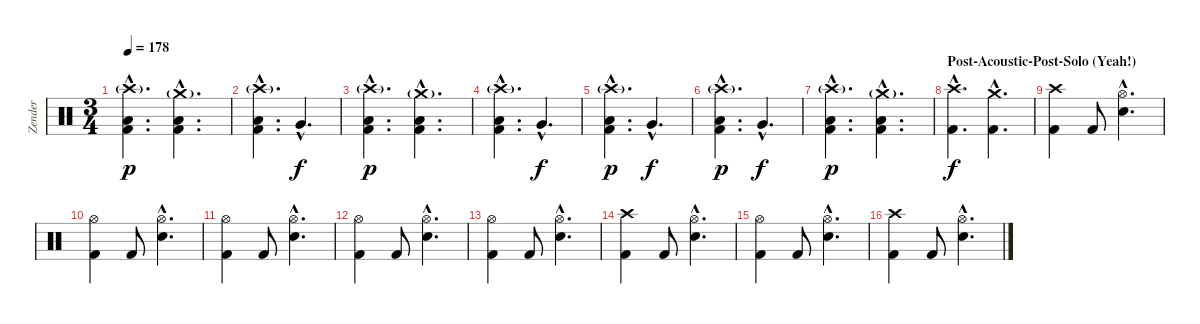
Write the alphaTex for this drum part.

\track ("Zender" "Zender") {instrument percussion}
\staff {score}
\articulation defaults
\ts (3 4)
\tempo 178
\clef neutral
\ks c
("Crash high (hit)"{g hac} "Low Floor Tom (hit)"{hac} "Kick (hit) 2"{hac}).4{d dy p} ("Crash medium (hit)"{g hac} "Low Floor Tom (hit)"{hac} "Kick (hit) 2"{hac}).4{d} |
("Crash high (hit)"{g hac} "Low Floor Tom (hit)"{hac} "Kick (hit) 2"{hac}).4{d} "Very Low Tom (hit)"{hac}.4{d dy f} |
("Crash high (hit)"{g hac} "Low Floor Tom (hit)"{hac} "Kick (hit) 2"{hac}).4{d dy p} ("Crash medium (hit)"{g hac} "Low Floor Tom (hit)"{hac} "Kick (hit) 2"{hac}).4{d} |
("Crash high (hit)"{g hac} "Low Floor Tom (hit)"{hac} "Kick (hit) 2"{hac}).4{d} "Very Low Tom (hit)"{hac}.4{d dy f} |
("Crash high (hit)"{g hac} "Low Floor Tom (hit)"{hac} "Kick (hit) 2"{hac}).4{d dy p} "Very Low Tom (hit)"{hac}.4{d dy f} |
("Crash high (hit)"{g hac} "Low Floor Tom (hit)"{hac} "Kick (hit) 2"{hac}).4{d dy p} "Very Low Tom (hit)"{hac}.4{d dy f} |
("Crash high (hit)"{g hac} "Low Floor Tom (hit)"{hac} "Kick (hit) 2"{hac}).4{d dy p} ("Crash medium (hit)"{g hac} "Low Floor Tom (hit)"{hac} "Kick (hit) 2"{hac}).4{d} |
\section ("" "Post-Acoustic-Post-Solo (Yeah!)")
("Crash high (hit)"{hac} "Kick (hit) 2"{hac}).4{d dy f} ("Crash medium (hit)"{hac} "Kick (hit) 2"{hac}).4{d} |
("Crash high (hit)" "Kick (hit) 2").4 "Kick (hit) 2".8 ("Electric Snare (hit)"{hac} "Hi-Hat (open)"{hac}).4{d} |
("Hi-Hat (open)" "Kick (hit) 2").4 "Kick (hit) 2".8 ("Electric Snare (hit)"{hac} "Hi-Hat (open)"{hac}).4{d} |
("Hi-Hat (open)" "Kick (hit) 2").4 "Kick (hit) 2".8 ("Electric Snare (hit)"{hac} "Hi-Hat (open)"{hac}).4{d} |
("Hi-Hat (open)" "Kick (hit) 2").4 "Kick (hit) 2".8 ("Electric Snare (hit)"{hac} "Hi-Hat (open)"{hac}).4{d} |
("Hi-Hat (open)" "Kick (hit) 2").4 "Kick (hit) 2".8 ("Electric Snare (hit)"{hac} "Hi-Hat (open)"{hac}).4{d} |
("Crash high (hit)" "Kick (hit) 2").4 "Kick (hit) 2".8 ("Electric Snare (hit)"{hac} "Hi-Hat (open)"{hac}).4{d} |
("Hi-Hat (open)" "Kick (hit) 2").4 "Kick (hit) 2".8 ("Electric Snare (hit)"{hac} "Hi-Hat (open)"{hac}).4{d} |
("Crash high (hit)" "Kick (hit) 2").4 "Kick (hit) 2".8 ("Electric Snare (hit)"{hac} "Hi-Hat (open)"{hac}).4{d}
